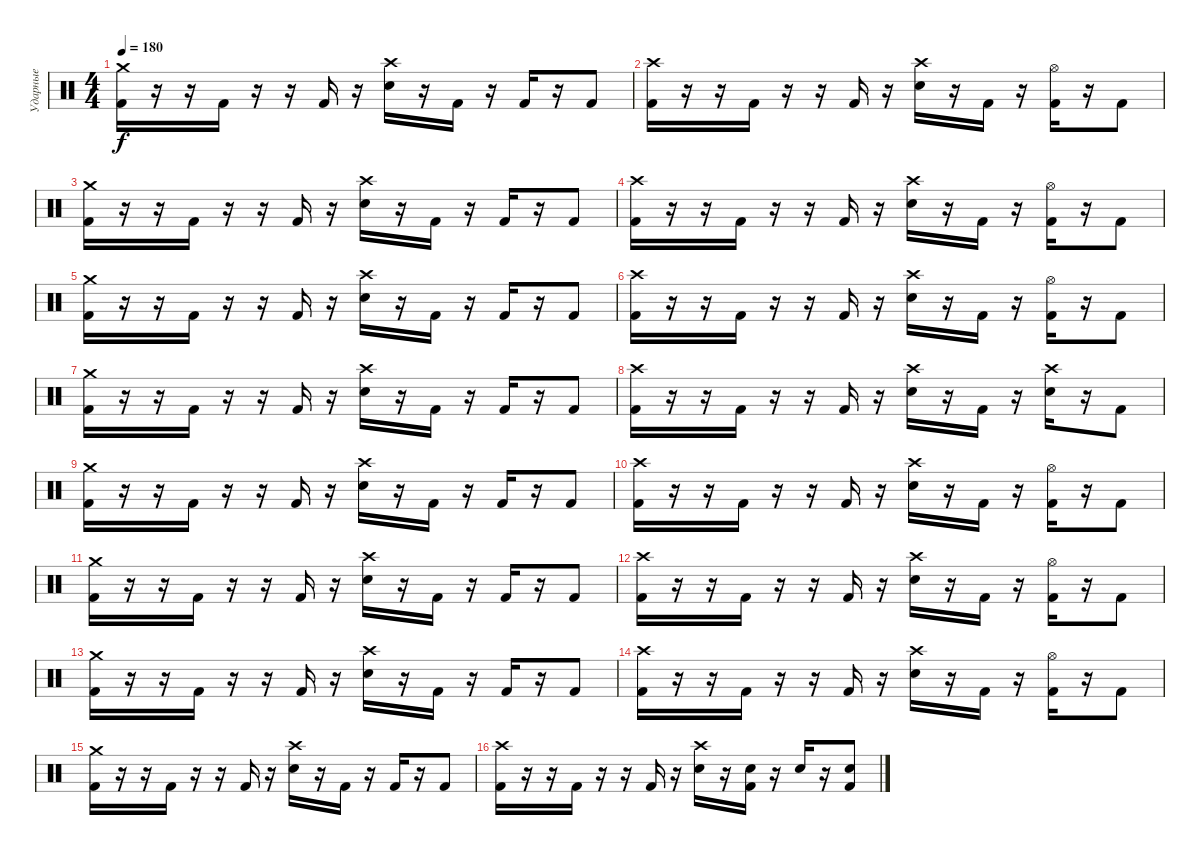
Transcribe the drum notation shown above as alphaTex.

\track ("Ударные" "Ударные") {instrument percussion}
\staff {score}
\articulation defaults
\ts (4 4)
\tempo 180
\clef neutral
\ks c
("Crash medium (hit)" "Kick (hit) 2").16{dy f} r.16 r.16 "Kick (hit) 2".16 r.16 r.16 "Kick (hit) 2".16 r.16 ("Crash high (hit)" "Electric Snare (hit)").16 r.16 "Kick (hit) 2".16 r.16 "Kick (hit) 2".16 r.16 "Kick (hit) 2".8 |
("Crash high (hit)" "Kick (hit) 2").16 r.16 r.16 "Kick (hit) 2".16 r.16 r.16 "Kick (hit) 2".16 r.16 ("Crash high (hit)" "Electric Snare (hit)").16 r.16 "Kick (hit) 2".16 r.16 ("Hi-Hat (open)" "Kick (hit) 2").16 r.16 "Kick (hit) 2".8 |
("Crash medium (hit)" "Kick (hit) 2").16 r.16 r.16 "Kick (hit) 2".16 r.16 r.16 "Kick (hit) 2".16 r.16 ("Crash high (hit)" "Electric Snare (hit)").16 r.16 "Kick (hit) 2".16 r.16 "Kick (hit) 2".16 r.16 "Kick (hit) 2".8 |
("Crash high (hit)" "Kick (hit) 2").16 r.16 r.16 "Kick (hit) 2".16 r.16 r.16 "Kick (hit) 2".16 r.16 ("Crash high (hit)" "Electric Snare (hit)").16 r.16 "Kick (hit) 2".16 r.16 ("Hi-Hat (open)" "Kick (hit) 2").16 r.16 "Kick (hit) 2".8 |
("Crash medium (hit)" "Kick (hit) 2").16 r.16 r.16 "Kick (hit) 2".16 r.16 r.16 "Kick (hit) 2".16 r.16 ("Crash high (hit)" "Electric Snare (hit)").16 r.16 "Kick (hit) 2".16 r.16 "Kick (hit) 2".16 r.16 "Kick (hit) 2".8 |
("Crash high (hit)" "Kick (hit) 2").16 r.16 r.16 "Kick (hit) 2".16 r.16 r.16 "Kick (hit) 2".16 r.16 ("Crash high (hit)" "Electric Snare (hit)").16 r.16 "Kick (hit) 2".16 r.16 ("Hi-Hat (open)" "Kick (hit) 2").16 r.16 "Kick (hit) 2".8 |
("Crash medium (hit)" "Kick (hit) 2").16 r.16 r.16 "Kick (hit) 2".16 r.16 r.16 "Kick (hit) 2".16 r.16 ("Crash high (hit)" "Electric Snare (hit)").16 r.16 "Kick (hit) 2".16 r.16 "Kick (hit) 2".16 r.16 "Kick (hit) 2".8 |
("Crash high (hit)" "Kick (hit) 2").16 r.16 r.16 "Kick (hit) 2".16 r.16 r.16 "Kick (hit) 2".16 r.16 ("Crash high (hit)" "Electric Snare (hit)").16 r.16 "Kick (hit) 2".16 r.16 ("Crash high (hit)" "Electric Snare (hit)").16 r.16 "Kick (hit) 2".8 |
("Crash medium (hit)" "Kick (hit) 2").16 r.16 r.16 "Kick (hit) 2".16 r.16 r.16 "Kick (hit) 2".16 r.16 ("Crash high (hit)" "Electric Snare (hit)").16 r.16 "Kick (hit) 2".16 r.16 "Kick (hit) 2".16 r.16 "Kick (hit) 2".8 |
("Crash high (hit)" "Kick (hit) 2").16 r.16 r.16 "Kick (hit) 2".16 r.16 r.16 "Kick (hit) 2".16 r.16 ("Crash high (hit)" "Electric Snare (hit)").16 r.16 "Kick (hit) 2".16 r.16 ("Hi-Hat (open)" "Kick (hit) 2").16 r.16 "Kick (hit) 2".8 |
("Crash medium (hit)" "Kick (hit) 2").16 r.16 r.16 "Kick (hit) 2".16 r.16 r.16 "Kick (hit) 2".16 r.16 ("Crash high (hit)" "Electric Snare (hit)").16 r.16 "Kick (hit) 2".16 r.16 "Kick (hit) 2".16 r.16 "Kick (hit) 2".8 |
("Crash high (hit)" "Kick (hit) 2").16 r.16 r.16 "Kick (hit) 2".16 r.16 r.16 "Kick (hit) 2".16 r.16 ("Crash high (hit)" "Electric Snare (hit)").16 r.16 "Kick (hit) 2".16 r.16 ("Hi-Hat (open)" "Kick (hit) 2").16 r.16 "Kick (hit) 2".8 |
("Crash medium (hit)" "Kick (hit) 2").16 r.16 r.16 "Kick (hit) 2".16 r.16 r.16 "Kick (hit) 2".16 r.16 ("Crash high (hit)" "Electric Snare (hit)").16 r.16 "Kick (hit) 2".16 r.16 "Kick (hit) 2".16 r.16 "Kick (hit) 2".8 |
("Crash high (hit)" "Kick (hit) 2").16 r.16 r.16 "Kick (hit) 2".16 r.16 r.16 "Kick (hit) 2".16 r.16 ("Crash high (hit)" "Electric Snare (hit)").16 r.16 "Kick (hit) 2".16 r.16 ("Hi-Hat (open)" "Kick (hit) 2").16 r.16 "Kick (hit) 2".8 |
("Crash medium (hit)" "Kick (hit) 2").16 r.16 r.16 "Kick (hit) 2".16 r.16 r.16 "Kick (hit) 2".16 r.16 ("Crash high (hit)" "Electric Snare (hit)").16 r.16 "Kick (hit) 2".16 r.16 "Kick (hit) 2".16 r.16 "Kick (hit) 2".8 |
("Crash high (hit)" "Kick (hit) 2").16 r.16 r.16 "Kick (hit) 2".16 r.16 r.16 "Kick (hit) 2".16 r.16 ("Crash high (hit)" "Electric Snare (hit)").16 r.16 ("Electric Snare (hit)" "Kick (hit) 2").16 r.16 "Electric Snare (hit)".16 r.16 ("Electric Snare (hit)" "Kick (hit) 2").8
